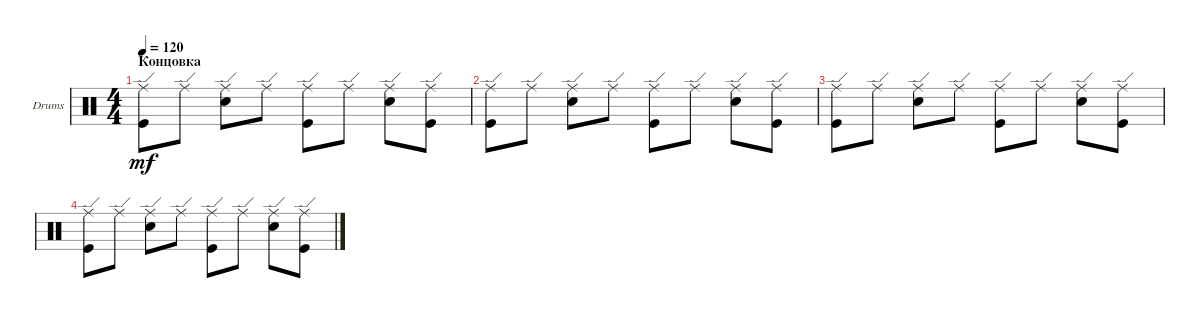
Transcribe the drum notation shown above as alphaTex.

\defaultSystemsLayout 4
\bracketExtendMode groupsimilarinstruments
\firstSystemTrackNameOrientation horizontal
\otherSystemsTrackNameOrientation horizontal
\track ("Drumkit" "Drums") {instrument percussion}
\staff {score}
\articulation defaults
\ts (4 4)
\section ("" "Концовка")
\tempo 120
\clef neutral
\ks c
("Kick (hit)" "Ride (edge)").8{dy mf} "Ride (edge)".8 ("Snare (hit) 2" "Ride (edge)").8 "Ride (edge)".8 ("Ride (edge)" "Kick (hit)").8 "Ride (edge)".8 ("Snare (hit) 2" "Ride (edge)").8 ("Ride (edge)" "Kick (hit)").8 |
("Kick (hit)" "Ride (edge)").8 "Ride (edge)".8 ("Snare (hit) 2" "Ride (edge)").8 "Ride (edge)".8 ("Ride (edge)" "Kick (hit)").8 "Ride (edge)".8 ("Snare (hit) 2" "Ride (edge)").8 ("Ride (edge)" "Kick (hit)").8 |
("Kick (hit)" "Ride (edge)").8 "Ride (edge)".8 ("Snare (hit) 2" "Ride (edge)").8 "Ride (edge)".8 ("Ride (edge)" "Kick (hit)").8 "Ride (edge)".8 ("Snare (hit) 2" "Ride (edge)").8 ("Ride (edge)" "Kick (hit)").8 |
("Kick (hit)" "Ride (edge)").8 "Ride (edge)".8 ("Snare (hit) 2" "Ride (edge)").8 "Ride (edge)".8 ("Ride (edge)" "Kick (hit)").8 "Ride (edge)".8 ("Snare (hit) 2" "Ride (edge)").8 ("Ride (edge)" "Kick (hit)").8
